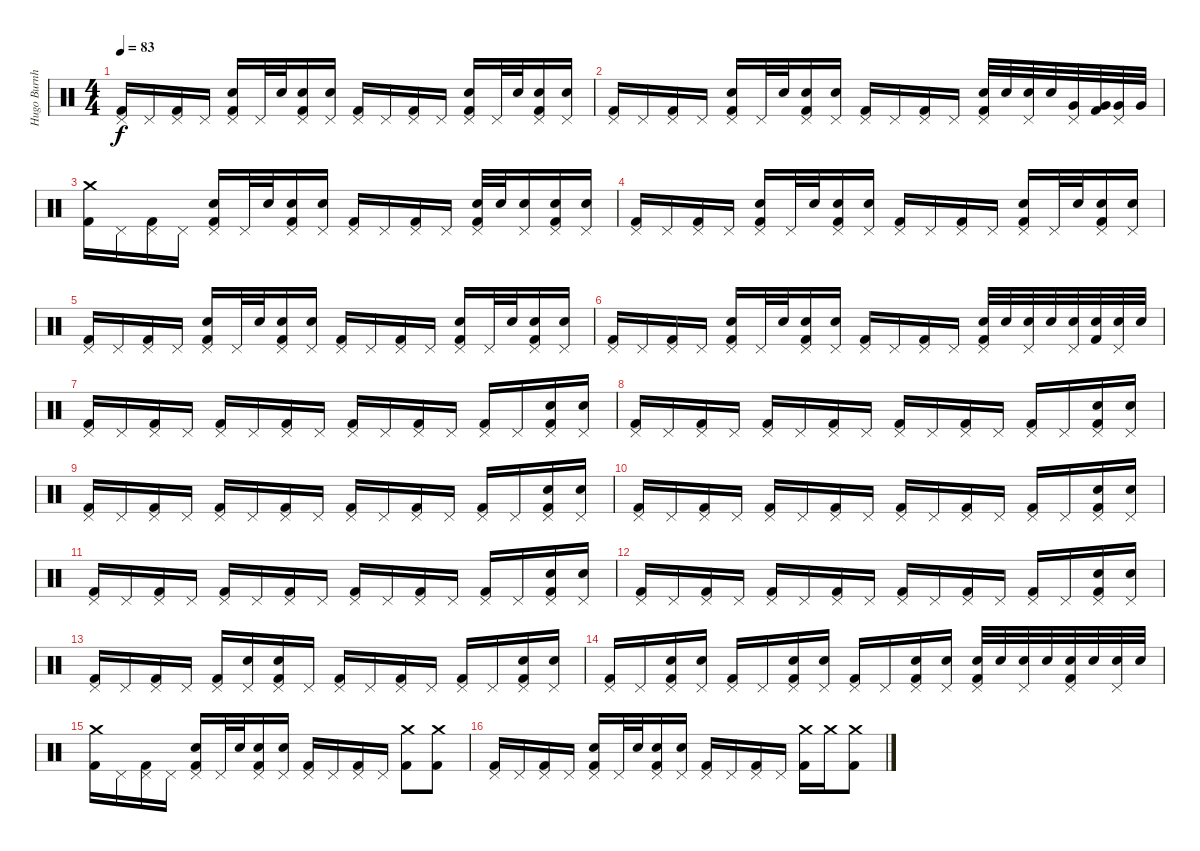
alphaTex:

\track ("Hugo Burnham" "Hugo Burnh") {instrument percussion}
\staff {score}
\articulation defaults
\ts (4 4)
\tempo 83
\clef neutral
\ks c
("Pedal Hi-Hat (hit)" "Kick (hit) 2").16{dy f} "Pedal Hi-Hat (hit)".16 ("Pedal Hi-Hat (hit)" "Kick (hit) 2").16 "Pedal Hi-Hat (hit)".16 ("Pedal Hi-Hat (hit)" "Electric Snare (hit)" "Kick (hit) 2").16 "Pedal Hi-Hat (hit)".32 "Electric Snare (hit)".32 ("Pedal Hi-Hat (hit)" "Electric Snare (hit)" "Kick (hit) 2").16 ("Pedal Hi-Hat (hit)" "Electric Snare (hit)").16 ("Pedal Hi-Hat (hit)" "Kick (hit) 2").16 "Pedal Hi-Hat (hit)".16 ("Pedal Hi-Hat (hit)" "Kick (hit) 2").16 "Pedal Hi-Hat (hit)".16 ("Pedal Hi-Hat (hit)" "Electric Snare (hit)" "Kick (hit) 2").16 "Pedal Hi-Hat (hit)".32 "Electric Snare (hit)".32 ("Pedal Hi-Hat (hit)" "Electric Snare (hit)" "Kick (hit) 2").16 ("Pedal Hi-Hat (hit)" "Electric Snare (hit)").16 |
("Pedal Hi-Hat (hit)" "Kick (hit) 2").16 "Pedal Hi-Hat (hit)".16 ("Pedal Hi-Hat (hit)" "Kick (hit) 2").16 "Pedal Hi-Hat (hit)".16 ("Pedal Hi-Hat (hit)" "Electric Snare (hit)" "Kick (hit) 2").16 "Pedal Hi-Hat (hit)".32 "Electric Snare (hit)".32 ("Pedal Hi-Hat (hit)" "Electric Snare (hit)" "Kick (hit) 2").16 ("Pedal Hi-Hat (hit)" "Electric Snare (hit)").16 ("Pedal Hi-Hat (hit)" "Kick (hit) 2").16 "Pedal Hi-Hat (hit)".16 ("Pedal Hi-Hat (hit)" "Kick (hit) 2").16 "Pedal Hi-Hat (hit)".16 ("Pedal Hi-Hat (hit)" "Electric Snare (hit)" "Kick (hit) 2").32 "Electric Snare (hit)".32 ("Pedal Hi-Hat (hit)" "Electric Snare (hit)").32 "Electric Snare (hit)".32 ("Pedal Hi-Hat (hit)" "Very Low Tom (hit)").32 ("Very Low Tom (hit)" "Kick (hit) 2").32 ("Pedal Hi-Hat (hit)" "Very Low Tom (hit)").32 "Very Low Tom (hit)".32 |
("Crash medium (hit)" "Kick (hit) 2").16 "Pedal Hi-Hat (hit)".16 ("Pedal Hi-Hat (hit)" "Kick (hit) 2").16 "Pedal Hi-Hat (hit)".16 ("Pedal Hi-Hat (hit)" "Electric Snare (hit)" "Kick (hit) 2").16 "Pedal Hi-Hat (hit)".32 "Electric Snare (hit)".32 ("Pedal Hi-Hat (hit)" "Electric Snare (hit)" "Kick (hit) 2").16 ("Pedal Hi-Hat (hit)" "Electric Snare (hit)").16 ("Pedal Hi-Hat (hit)" "Kick (hit) 2").16 "Pedal Hi-Hat (hit)".16 ("Pedal Hi-Hat (hit)" "Kick (hit) 2").16 "Pedal Hi-Hat (hit)".16 ("Pedal Hi-Hat (hit)" "Electric Snare (hit)" "Kick (hit) 2").32 "Electric Snare (hit)".32 ("Pedal Hi-Hat (hit)" "Electric Snare (hit)").16 ("Pedal Hi-Hat (hit)" "Electric Snare (hit)" "Kick (hit) 2").16 ("Pedal Hi-Hat (hit)" "Electric Snare (hit)").16 |
("Pedal Hi-Hat (hit)" "Kick (hit) 2").16 "Pedal Hi-Hat (hit)".16 ("Pedal Hi-Hat (hit)" "Kick (hit) 2").16 "Pedal Hi-Hat (hit)".16 ("Pedal Hi-Hat (hit)" "Electric Snare (hit)" "Kick (hit) 2").16 "Pedal Hi-Hat (hit)".32 "Electric Snare (hit)".32 ("Pedal Hi-Hat (hit)" "Electric Snare (hit)" "Kick (hit) 2").16 ("Pedal Hi-Hat (hit)" "Electric Snare (hit)").16 ("Pedal Hi-Hat (hit)" "Kick (hit) 2").16 "Pedal Hi-Hat (hit)".16 ("Pedal Hi-Hat (hit)" "Kick (hit) 2").16 "Pedal Hi-Hat (hit)".16 ("Pedal Hi-Hat (hit)" "Electric Snare (hit)" "Kick (hit) 2").16 "Pedal Hi-Hat (hit)".32 "Electric Snare (hit)".32 ("Pedal Hi-Hat (hit)" "Electric Snare (hit)" "Kick (hit) 2").16 ("Pedal Hi-Hat (hit)" "Electric Snare (hit)").16 |
("Pedal Hi-Hat (hit)" "Kick (hit) 2").16 "Pedal Hi-Hat (hit)".16 ("Pedal Hi-Hat (hit)" "Kick (hit) 2").16 "Pedal Hi-Hat (hit)".16 ("Pedal Hi-Hat (hit)" "Electric Snare (hit)" "Kick (hit) 2").16 "Pedal Hi-Hat (hit)".32 "Electric Snare (hit)".32 ("Pedal Hi-Hat (hit)" "Electric Snare (hit)" "Kick (hit) 2").16 ("Pedal Hi-Hat (hit)" "Electric Snare (hit)").16 ("Pedal Hi-Hat (hit)" "Kick (hit) 2").16 "Pedal Hi-Hat (hit)".16 ("Pedal Hi-Hat (hit)" "Kick (hit) 2").16 "Pedal Hi-Hat (hit)".16 ("Pedal Hi-Hat (hit)" "Electric Snare (hit)" "Kick (hit) 2").16 "Pedal Hi-Hat (hit)".32 "Electric Snare (hit)".32 ("Pedal Hi-Hat (hit)" "Electric Snare (hit)" "Kick (hit) 2").16 ("Pedal Hi-Hat (hit)" "Electric Snare (hit)").16 |
("Pedal Hi-Hat (hit)" "Kick (hit) 2").16 "Pedal Hi-Hat (hit)".16 ("Pedal Hi-Hat (hit)" "Kick (hit) 2").16 "Pedal Hi-Hat (hit)".16 ("Pedal Hi-Hat (hit)" "Electric Snare (hit)" "Kick (hit) 2").16 "Pedal Hi-Hat (hit)".32 "Electric Snare (hit)".32 ("Pedal Hi-Hat (hit)" "Electric Snare (hit)" "Kick (hit) 2").16 ("Pedal Hi-Hat (hit)" "Electric Snare (hit)").16 ("Pedal Hi-Hat (hit)" "Kick (hit) 2").16 "Pedal Hi-Hat (hit)".16 ("Pedal Hi-Hat (hit)" "Kick (hit) 2").16 "Pedal Hi-Hat (hit)".16 ("Pedal Hi-Hat (hit)" "Electric Snare (hit)" "Kick (hit) 2").32 "Electric Snare (hit)".32 ("Pedal Hi-Hat (hit)" "Electric Snare (hit)").32 "Electric Snare (hit)".32 ("Pedal Hi-Hat (hit)" "Electric Snare (hit)").32 ("Electric Snare (hit)" "Kick (hit) 2").32 ("Pedal Hi-Hat (hit)" "Electric Snare (hit)").32 "Electric Snare (hit)".32 |
("Pedal Hi-Hat (hit)" "Kick (hit) 2").16 "Pedal Hi-Hat (hit)".16 ("Pedal Hi-Hat (hit)" "Kick (hit) 2").16 "Pedal Hi-Hat (hit)".16 ("Pedal Hi-Hat (hit)" "Kick (hit) 2").16 "Pedal Hi-Hat (hit)".16 ("Pedal Hi-Hat (hit)" "Kick (hit) 2").16 "Pedal Hi-Hat (hit)".16 ("Pedal Hi-Hat (hit)" "Kick (hit) 2").16 "Pedal Hi-Hat (hit)".16 ("Pedal Hi-Hat (hit)" "Kick (hit) 2").16 "Pedal Hi-Hat (hit)".16 ("Pedal Hi-Hat (hit)" "Kick (hit) 2").16 "Pedal Hi-Hat (hit)".16 ("Pedal Hi-Hat (hit)" "Electric Snare (hit)" "Kick (hit) 2").16 ("Pedal Hi-Hat (hit)" "Electric Snare (hit)").16 |
("Pedal Hi-Hat (hit)" "Kick (hit) 2").16 "Pedal Hi-Hat (hit)".16 ("Pedal Hi-Hat (hit)" "Kick (hit) 2").16 "Pedal Hi-Hat (hit)".16 ("Pedal Hi-Hat (hit)" "Kick (hit) 2").16 "Pedal Hi-Hat (hit)".16 ("Pedal Hi-Hat (hit)" "Kick (hit) 2").16 "Pedal Hi-Hat (hit)".16 ("Pedal Hi-Hat (hit)" "Kick (hit) 2").16 "Pedal Hi-Hat (hit)".16 ("Pedal Hi-Hat (hit)" "Kick (hit) 2").16 "Pedal Hi-Hat (hit)".16 ("Pedal Hi-Hat (hit)" "Kick (hit) 2").16 "Pedal Hi-Hat (hit)".16 ("Pedal Hi-Hat (hit)" "Electric Snare (hit)" "Kick (hit) 2").16 ("Pedal Hi-Hat (hit)" "Electric Snare (hit)").16 |
("Pedal Hi-Hat (hit)" "Kick (hit) 2").16 "Pedal Hi-Hat (hit)".16 ("Pedal Hi-Hat (hit)" "Kick (hit) 2").16 "Pedal Hi-Hat (hit)".16 ("Pedal Hi-Hat (hit)" "Kick (hit) 2").16 "Pedal Hi-Hat (hit)".16 ("Pedal Hi-Hat (hit)" "Kick (hit) 2").16 "Pedal Hi-Hat (hit)".16 ("Pedal Hi-Hat (hit)" "Kick (hit) 2").16 "Pedal Hi-Hat (hit)".16 ("Pedal Hi-Hat (hit)" "Kick (hit) 2").16 "Pedal Hi-Hat (hit)".16 ("Pedal Hi-Hat (hit)" "Kick (hit) 2").16 "Pedal Hi-Hat (hit)".16 ("Pedal Hi-Hat (hit)" "Electric Snare (hit)" "Kick (hit) 2").16 ("Pedal Hi-Hat (hit)" "Electric Snare (hit)").16 |
("Pedal Hi-Hat (hit)" "Kick (hit) 2").16 "Pedal Hi-Hat (hit)".16 ("Pedal Hi-Hat (hit)" "Kick (hit) 2").16 "Pedal Hi-Hat (hit)".16 ("Pedal Hi-Hat (hit)" "Kick (hit) 2").16 "Pedal Hi-Hat (hit)".16 ("Pedal Hi-Hat (hit)" "Kick (hit) 2").16 "Pedal Hi-Hat (hit)".16 ("Pedal Hi-Hat (hit)" "Kick (hit) 2").16 "Pedal Hi-Hat (hit)".16 ("Pedal Hi-Hat (hit)" "Kick (hit) 2").16 "Pedal Hi-Hat (hit)".16 ("Pedal Hi-Hat (hit)" "Kick (hit) 2").16 "Pedal Hi-Hat (hit)".16 ("Pedal Hi-Hat (hit)" "Electric Snare (hit)" "Kick (hit) 2").16 ("Pedal Hi-Hat (hit)" "Electric Snare (hit)").16 |
("Pedal Hi-Hat (hit)" "Kick (hit) 2").16 "Pedal Hi-Hat (hit)".16 ("Pedal Hi-Hat (hit)" "Kick (hit) 2").16 "Pedal Hi-Hat (hit)".16 ("Pedal Hi-Hat (hit)" "Kick (hit) 2").16 "Pedal Hi-Hat (hit)".16 ("Pedal Hi-Hat (hit)" "Kick (hit) 2").16 "Pedal Hi-Hat (hit)".16 ("Pedal Hi-Hat (hit)" "Kick (hit) 2").16 "Pedal Hi-Hat (hit)".16 ("Pedal Hi-Hat (hit)" "Kick (hit) 2").16 "Pedal Hi-Hat (hit)".16 ("Pedal Hi-Hat (hit)" "Kick (hit) 2").16 "Pedal Hi-Hat (hit)".16 ("Pedal Hi-Hat (hit)" "Electric Snare (hit)" "Kick (hit) 2").16 ("Pedal Hi-Hat (hit)" "Electric Snare (hit)").16 |
("Pedal Hi-Hat (hit)" "Kick (hit) 2").16 "Pedal Hi-Hat (hit)".16 ("Pedal Hi-Hat (hit)" "Kick (hit) 2").16 "Pedal Hi-Hat (hit)".16 ("Pedal Hi-Hat (hit)" "Kick (hit) 2").16 "Pedal Hi-Hat (hit)".16 ("Pedal Hi-Hat (hit)" "Kick (hit) 2").16 "Pedal Hi-Hat (hit)".16 ("Pedal Hi-Hat (hit)" "Kick (hit) 2").16 "Pedal Hi-Hat (hit)".16 ("Pedal Hi-Hat (hit)" "Kick (hit) 2").16 "Pedal Hi-Hat (hit)".16 ("Pedal Hi-Hat (hit)" "Kick (hit) 2").16 "Pedal Hi-Hat (hit)".16 ("Pedal Hi-Hat (hit)" "Electric Snare (hit)" "Kick (hit) 2").16 ("Pedal Hi-Hat (hit)" "Electric Snare (hit)").16 |
("Pedal Hi-Hat (hit)" "Kick (hit) 2").16 "Pedal Hi-Hat (hit)".16 ("Pedal Hi-Hat (hit)" "Kick (hit) 2").16 "Pedal Hi-Hat (hit)".16 ("Pedal Hi-Hat (hit)" "Kick (hit) 2").16 ("Pedal Hi-Hat (hit)" "Electric Snare (hit)").16 ("Pedal Hi-Hat (hit)" "Electric Snare (hit)" "Kick (hit) 2").16 "Pedal Hi-Hat (hit)".16 ("Pedal Hi-Hat (hit)" "Kick (hit) 2").16 "Pedal Hi-Hat (hit)".16 ("Pedal Hi-Hat (hit)" "Kick (hit) 2").16 "Pedal Hi-Hat (hit)".16 ("Pedal Hi-Hat (hit)" "Kick (hit) 2").16 "Pedal Hi-Hat (hit)".16 ("Pedal Hi-Hat (hit)" "Electric Snare (hit)" "Kick (hit) 2").16 ("Pedal Hi-Hat (hit)" "Electric Snare (hit)").16 |
("Pedal Hi-Hat (hit)" "Kick (hit) 2").16 "Pedal Hi-Hat (hit)".16 ("Pedal Hi-Hat (hit)" "Electric Snare (hit)" "Kick (hit) 2").16 ("Pedal Hi-Hat (hit)" "Electric Snare (hit)").16 ("Pedal Hi-Hat (hit)" "Kick (hit) 2").16 "Pedal Hi-Hat (hit)".16 ("Pedal Hi-Hat (hit)" "Electric Snare (hit)" "Kick (hit) 2").16 ("Pedal Hi-Hat (hit)" "Electric Snare (hit)").16 ("Pedal Hi-Hat (hit)" "Kick (hit) 2").16 "Pedal Hi-Hat (hit)".16 ("Pedal Hi-Hat (hit)" "Electric Snare (hit)" "Kick (hit) 2").16 ("Pedal Hi-Hat (hit)" "Electric Snare (hit)").16 ("Pedal Hi-Hat (hit)" "Electric Snare (hit)" "Kick (hit) 2").32 "Electric Snare (hit)".32 ("Pedal Hi-Hat (hit)" "Electric Snare (hit)").32 "Electric Snare (hit)".32 ("Pedal Hi-Hat (hit)" "Electric Snare (hit)" "Kick (hit) 2").32 "Electric Snare (hit)".32 ("Pedal Hi-Hat (hit)" "Electric Snare (hit)").32 "Electric Snare (hit)".32 |
("Crash medium (hit)" "Kick (hit) 2").16 "Pedal Hi-Hat (hit)".16 ("Pedal Hi-Hat (hit)" "Kick (hit) 2").16 "Pedal Hi-Hat (hit)".16 ("Pedal Hi-Hat (hit)" "Electric Snare (hit)" "Kick (hit) 2").16 "Pedal Hi-Hat (hit)".32 "Electric Snare (hit)".32 ("Pedal Hi-Hat (hit)" "Electric Snare (hit)" "Kick (hit) 2").16 ("Pedal Hi-Hat (hit)" "Electric Snare (hit)").16 ("Pedal Hi-Hat (hit)" "Kick (hit) 2").16 "Pedal Hi-Hat (hit)".16 ("Pedal Hi-Hat (hit)" "Kick (hit) 2").16 "Pedal Hi-Hat (hit)".16 ("Crash medium (hit)" "Kick (hit) 2").8 ("Crash medium (hit)" "Kick (hit) 2").8 |
("Pedal Hi-Hat (hit)" "Kick (hit) 2").16 "Pedal Hi-Hat (hit)".16 ("Pedal Hi-Hat (hit)" "Kick (hit) 2").16 "Pedal Hi-Hat (hit)".16 ("Pedal Hi-Hat (hit)" "Electric Snare (hit)" "Kick (hit) 2").16 "Pedal Hi-Hat (hit)".32 "Electric Snare (hit)".32 ("Pedal Hi-Hat (hit)" "Electric Snare (hit)" "Kick (hit) 2").16 ("Pedal Hi-Hat (hit)" "Electric Snare (hit)").16 ("Pedal Hi-Hat (hit)" "Kick (hit) 2").16 "Pedal Hi-Hat (hit)".16 ("Pedal Hi-Hat (hit)" "Kick (hit) 2").16 "Pedal Hi-Hat (hit)".16 ("Crash medium (hit)" "Kick (hit) 2").16 "Crash medium (hit)".16 ("Crash medium (hit)" "Kick (hit) 2").8
